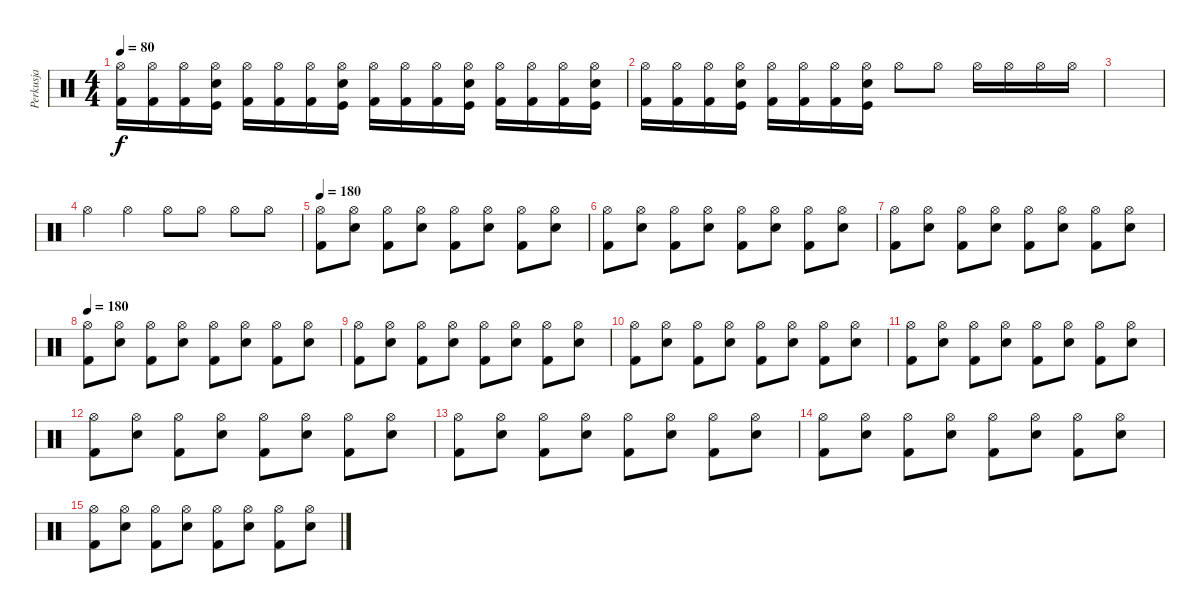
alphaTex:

\track ("Perkusja" "Perkusja") {instrument percussion}
\staff {score}
\articulation defaults
\ts (4 4)
\tempo 80
\clef neutral
\ks c
("Kick (hit) 2" "Hi-Hat (open)").16{dy f} ("Kick (hit) 2" "Hi-Hat (open)").16 ("Kick (hit) 2" "Hi-Hat (open)").16 ("Snare (hit) 2" "Hi-Hat (open)" "Kick (hit)").16 ("Kick (hit) 2" "Hi-Hat (open)").16 ("Kick (hit) 2" "Hi-Hat (open)").16 ("Kick (hit) 2" "Hi-Hat (open)").16 ("Snare (hit) 2" "Hi-Hat (open)" "Kick (hit)").16 ("Kick (hit) 2" "Hi-Hat (open)").16 ("Kick (hit) 2" "Hi-Hat (open)").16 ("Kick (hit) 2" "Hi-Hat (open)").16 ("Snare (hit) 2" "Hi-Hat (open)" "Kick (hit)").16 ("Kick (hit) 2" "Hi-Hat (open)").16 ("Kick (hit) 2" "Hi-Hat (open)").16 ("Kick (hit) 2" "Hi-Hat (open)").16 ("Snare (hit) 2" "Hi-Hat (open)" "Kick (hit)").16 |
("Kick (hit) 2" "Hi-Hat (open)").16 ("Kick (hit) 2" "Hi-Hat (open)").16 ("Kick (hit) 2" "Hi-Hat (open)").16 ("Snare (hit) 2" "Hi-Hat (open)" "Kick (hit)").16 ("Kick (hit) 2" "Hi-Hat (open)").16 ("Kick (hit) 2" "Hi-Hat (open)").16 ("Kick (hit) 2" "Hi-Hat (open)").16 ("Snare (hit) 2" "Hi-Hat (open)" "Kick (hit)").16 "Hi-Hat (open)".8 "Hi-Hat (open)".8 "Hi-Hat (open)".16 "Hi-Hat (open)".16 "Hi-Hat (open)".16 "Hi-Hat (open)".16 |
|
"Hi-Hat (open)".4 "Hi-Hat (open)".4 "Hi-Hat (open)".8 "Hi-Hat (open)".8 "Hi-Hat (open)".8 "Hi-Hat (open)".8 |
\tempo 180
("Kick (hit) 2" "Hi-Hat (open)").8 ("Snare (hit) 2" "Hi-Hat (open)").8 ("Kick (hit) 2" "Hi-Hat (open)").8 ("Snare (hit) 2" "Hi-Hat (open)").8 ("Kick (hit) 2" "Hi-Hat (open)").8 ("Snare (hit) 2" "Hi-Hat (open)").8 ("Kick (hit) 2" "Hi-Hat (open)").8 ("Snare (hit) 2" "Hi-Hat (open)").8 |
("Kick (hit) 2" "Hi-Hat (open)").8 ("Snare (hit) 2" "Hi-Hat (open)").8 ("Kick (hit) 2" "Hi-Hat (open)").8 ("Snare (hit) 2" "Hi-Hat (open)").8 ("Kick (hit) 2" "Hi-Hat (open)").8 ("Snare (hit) 2" "Hi-Hat (open)").8 ("Kick (hit) 2" "Hi-Hat (open)").8 ("Snare (hit) 2" "Hi-Hat (open)").8 |
("Kick (hit) 2" "Hi-Hat (open)").8 ("Snare (hit) 2" "Hi-Hat (open)").8 ("Kick (hit) 2" "Hi-Hat (open)").8 ("Snare (hit) 2" "Hi-Hat (open)").8 ("Kick (hit) 2" "Hi-Hat (open)").8 ("Snare (hit) 2" "Hi-Hat (open)").8 ("Kick (hit) 2" "Hi-Hat (open)").8 ("Snare (hit) 2" "Hi-Hat (open)").8 |
\tempo 180
("Kick (hit) 2" "Hi-Hat (open)").8 ("Snare (hit) 2" "Hi-Hat (open)").8 ("Kick (hit) 2" "Hi-Hat (open)").8 ("Snare (hit) 2" "Hi-Hat (open)").8 ("Kick (hit) 2" "Hi-Hat (open)").8 ("Snare (hit) 2" "Hi-Hat (open)").8 ("Kick (hit) 2" "Hi-Hat (open)").8 ("Snare (hit) 2" "Hi-Hat (open)").8 |
("Kick (hit) 2" "Hi-Hat (open)").8 ("Snare (hit) 2" "Hi-Hat (open)").8 ("Kick (hit) 2" "Hi-Hat (open)").8 ("Snare (hit) 2" "Hi-Hat (open)").8 ("Kick (hit) 2" "Hi-Hat (open)").8 ("Snare (hit) 2" "Hi-Hat (open)").8 ("Kick (hit) 2" "Hi-Hat (open)").8 ("Snare (hit) 2" "Hi-Hat (open)").8 |
("Kick (hit) 2" "Hi-Hat (open)").8 ("Snare (hit) 2" "Hi-Hat (open)").8 ("Kick (hit) 2" "Hi-Hat (open)").8 ("Snare (hit) 2" "Hi-Hat (open)").8 ("Kick (hit) 2" "Hi-Hat (open)").8 ("Snare (hit) 2" "Hi-Hat (open)").8 ("Kick (hit) 2" "Hi-Hat (open)").8 ("Snare (hit) 2" "Hi-Hat (open)").8 |
("Kick (hit) 2" "Hi-Hat (open)").8 ("Snare (hit) 2" "Hi-Hat (open)").8 ("Kick (hit) 2" "Hi-Hat (open)").8 ("Snare (hit) 2" "Hi-Hat (open)").8 ("Kick (hit) 2" "Hi-Hat (open)").8 ("Snare (hit) 2" "Hi-Hat (open)").8 ("Kick (hit) 2" "Hi-Hat (open)").8 ("Snare (hit) 2" "Hi-Hat (open)").8 |
("Kick (hit) 2" "Hi-Hat (open)").8 ("Snare (hit) 2" "Hi-Hat (open)").8 ("Kick (hit) 2" "Hi-Hat (open)").8 ("Snare (hit) 2" "Hi-Hat (open)").8 ("Kick (hit) 2" "Hi-Hat (open)").8 ("Snare (hit) 2" "Hi-Hat (open)").8 ("Kick (hit) 2" "Hi-Hat (open)").8 ("Snare (hit) 2" "Hi-Hat (open)").8 |
("Kick (hit) 2" "Hi-Hat (open)").8 ("Snare (hit) 2" "Hi-Hat (open)").8 ("Kick (hit) 2" "Hi-Hat (open)").8 ("Snare (hit) 2" "Hi-Hat (open)").8 ("Kick (hit) 2" "Hi-Hat (open)").8 ("Snare (hit) 2" "Hi-Hat (open)").8 ("Kick (hit) 2" "Hi-Hat (open)").8 ("Snare (hit) 2" "Hi-Hat (open)").8 |
("Kick (hit) 2" "Hi-Hat (open)").8 ("Snare (hit) 2" "Hi-Hat (open)").8 ("Kick (hit) 2" "Hi-Hat (open)").8 ("Snare (hit) 2" "Hi-Hat (open)").8 ("Kick (hit) 2" "Hi-Hat (open)").8 ("Snare (hit) 2" "Hi-Hat (open)").8 ("Kick (hit) 2" "Hi-Hat (open)").8 ("Snare (hit) 2" "Hi-Hat (open)").8 |
("Kick (hit) 2" "Hi-Hat (open)").8 ("Snare (hit) 2" "Hi-Hat (open)").8 ("Kick (hit) 2" "Hi-Hat (open)").8 ("Snare (hit) 2" "Hi-Hat (open)").8 ("Kick (hit) 2" "Hi-Hat (open)").8 ("Snare (hit) 2" "Hi-Hat (open)").8 ("Kick (hit) 2" "Hi-Hat (open)").8 ("Snare (hit) 2" "Hi-Hat (open)").8
